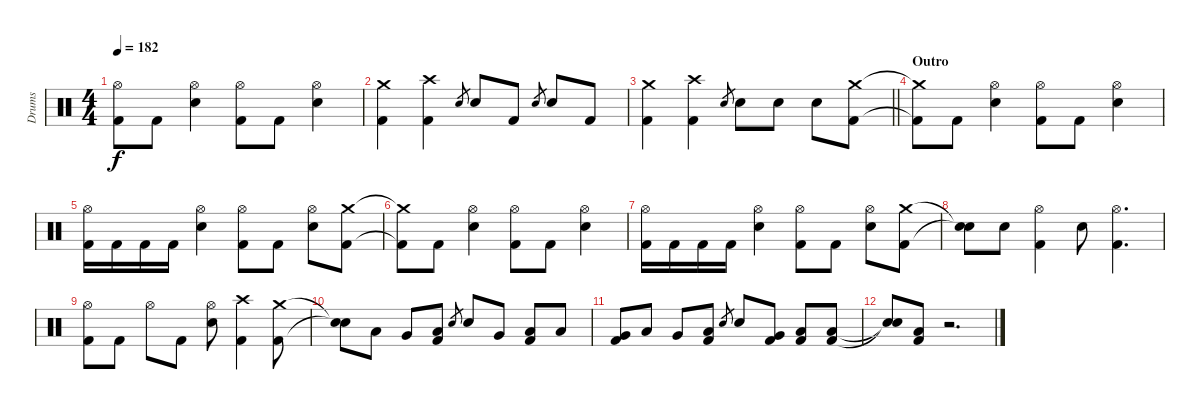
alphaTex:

\track ("Drums" "Drums") {instrument percussion}
\staff {score}
\articulation defaults
\ts (4 4)
\tempo 182
\clef neutral
\ks c
("Hi-Hat (open)" "Kick (hit) 2").8{dy f} "Kick (hit) 2".8 ("Hi-Hat (open)" "Electric Snare (hit)").4 ("Hi-Hat (open)" "Kick (hit) 2").8 "Kick (hit) 2".8 ("Hi-Hat (open)" "Electric Snare (hit)").4 |
("Crash medium (hit)" "Kick (hit) 2").4 ("Crash high (hit)" "Kick (hit) 2").4 "Electric Snare (hit)".8{gr} "Electric Snare (hit)".8 "Kick (hit) 2".8 "Electric Snare (hit)".8{gr} "Electric Snare (hit)".8 "Kick (hit) 2".8 |
\barLineRight lightlight
("Crash medium (hit)" "Kick (hit) 2").4 ("Crash high (hit)" "Kick (hit) 2").4 "Electric Snare (hit)".8{gr} "Electric Snare (hit)".8 "Electric Snare (hit)".8 "Electric Snare (hit)".8 ("Crash medium (hit)" "Kick (hit) 2").8 |
\section ("" "Outro")
("Crash medium (hit)"{t} "Kick (hit) 2"{t}).8 "Kick (hit) 2".8 ("Hi-Hat (open)" "Electric Snare (hit)").4 ("Hi-Hat (open)" "Kick (hit) 2").8 "Kick (hit) 2".8 ("Hi-Hat (open)" "Electric Snare (hit)").4 |
("Hi-Hat (open)" "Kick (hit) 2").16 "Kick (hit) 2".16 "Kick (hit) 2".16 "Kick (hit) 2".16 ("Hi-Hat (open)" "Electric Snare (hit)").4 ("Hi-Hat (open)" "Kick (hit) 2").8 "Kick (hit) 2".8 ("Hi-Hat (open)" "Electric Snare (hit)").8 ("Crash medium (hit)" "Kick (hit) 2").8 |
("Crash medium (hit)"{t} "Kick (hit) 2"{t}).8 "Kick (hit) 2".8 ("Hi-Hat (open)" "Electric Snare (hit)").4 ("Hi-Hat (open)" "Kick (hit) 2").8 "Kick (hit) 2".8 ("Hi-Hat (open)" "Electric Snare (hit)").4 |
("Hi-Hat (open)" "Kick (hit) 2").16 "Kick (hit) 2".16 "Kick (hit) 2".16 "Kick (hit) 2".16 ("Hi-Hat (open)" "Electric Snare (hit)").4 ("Hi-Hat (open)" "Kick (hit) 2").8 "Kick (hit) 2".8 ("Hi-Hat (open)" "Electric Snare (hit)").8 ("Crash medium (hit)" "Kick (hit) 2").8 |
("Snare (hit)"{t} "Snare (hit)"{t}).8 "Electric Snare (hit)".8 ("Hi-Hat (open)" "Kick (hit) 2").4 "Electric Snare (hit)".8 ("Hi-Hat (open)" "Kick (hit) 2").4{d} |
("Hi-Hat (open)" "Kick (hit) 2").8 "Kick (hit) 2".8 "Hi-Hat (open)".8 "Kick (hit) 2".8 ("Hi-Hat (open)" "Electric Snare (hit)").8 ("Crash high (hit)" "Kick (hit) 2").4 ("Crash medium (hit)" "Kick (hit) 2").8 |
("Snare (hit)"{t} "Snare (hit)"{t}).8 "Low Tom (hit)".8 "Very Low Tom (hit)".8 ("Low Floor Tom (hit)" "Kick (hit) 2").8 "Electric Snare (hit)".8{gr} "Electric Snare (hit)".8 "Very Low Tom (hit)".8 ("Low Floor Tom (hit)" "Kick (hit) 2").8 "Low Tom (hit)".8 |
("Very Low Tom (hit)" "Kick (hit) 2").8 "Low Tom (hit)".8 "Very Low Tom (hit)".8 ("Low Floor Tom (hit)" "Kick (hit) 2").8 "Electric Snare (hit)".8{gr} "Electric Snare (hit)".8 ("Very Low Tom (hit)" "Kick (hit) 2").8 ("Low Floor Tom (hit)" "Kick (hit) 2").8 ("Low Floor Tom (hit)" "Kick (hit) 2").8 |
("Snare (hit)"{t} "Snare (hit)"{t}).8 ("Low Floor Tom (hit)" "Kick (hit) 2").8 r.2{d}
